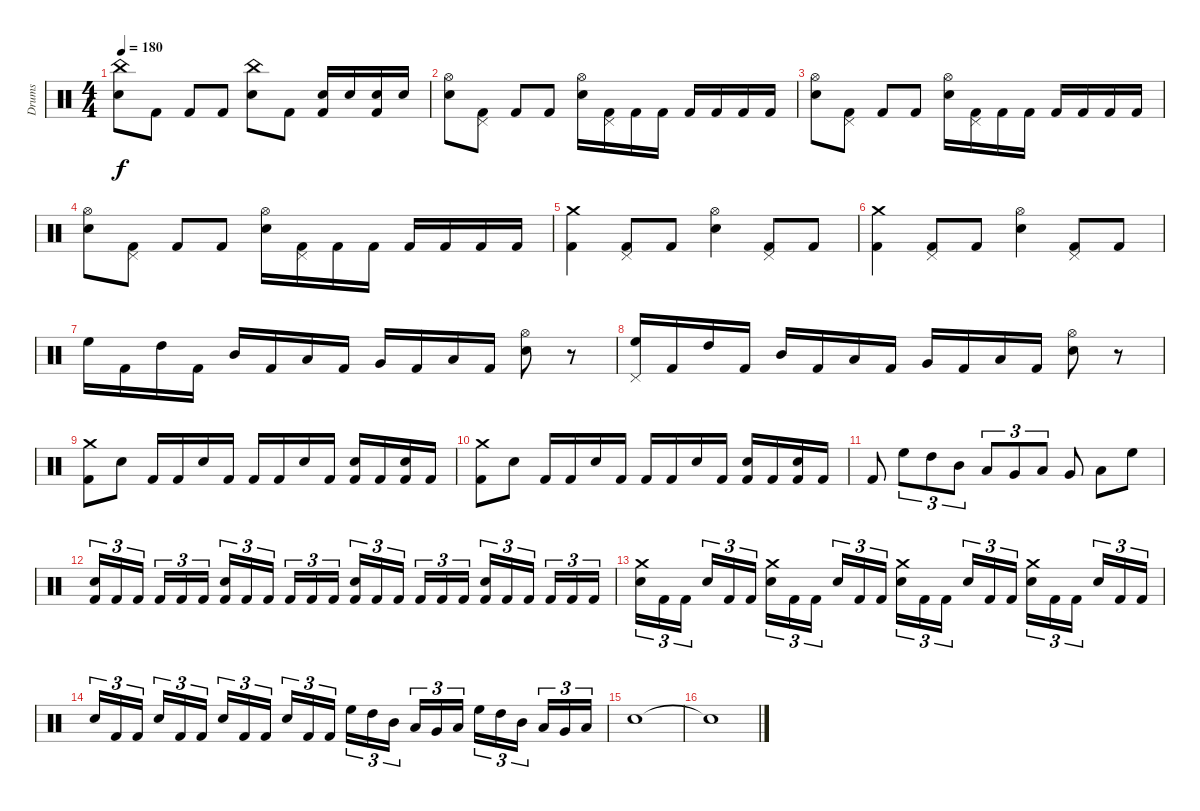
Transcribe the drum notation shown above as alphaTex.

\track ("Drums" "Drums") {instrument percussion}
\staff {score}
\articulation defaults
\ts (4 4)
\tempo 180
\clef neutral
\ks c
("China (hit)" "Electric Snare (hit)").8{dy f} "Kick (hit) 2".8 "Kick (hit) 2".8 "Kick (hit) 2".8 ("China (hit)" "Electric Snare (hit)").8 "Kick (hit) 2".8 ("Kick (hit) 2" "Electric Snare (hit)").16 "Electric Snare (hit)".16 ("Kick (hit) 2" "Electric Snare (hit)").16 "Electric Snare (hit)".16 |
("Hi-Hat (open)" "Electric Snare (hit)").8 ("Pedal Hi-Hat (hit)" "Kick (hit) 2").8 "Kick (hit) 2".8 "Kick (hit) 2".8 ("Hi-Hat (open)" "Electric Snare (hit)").16 ("Pedal Hi-Hat (hit)" "Kick (hit) 2").16 "Kick (hit) 2".16 "Kick (hit) 2".16 "Kick (hit) 2".16 "Kick (hit) 2".16 "Kick (hit) 2".16 "Kick (hit) 2".16 |
("Hi-Hat (open)" "Electric Snare (hit)").8 ("Pedal Hi-Hat (hit)" "Kick (hit) 2").8 "Kick (hit) 2".8 "Kick (hit) 2".8 ("Hi-Hat (open)" "Electric Snare (hit)").16 ("Pedal Hi-Hat (hit)" "Kick (hit) 2").16 "Kick (hit) 2".16 "Kick (hit) 2".16 "Kick (hit) 2".16 "Kick (hit) 2".16 "Kick (hit) 2".16 "Kick (hit) 2".16 |
("Hi-Hat (open)" "Electric Snare (hit)").8 ("Pedal Hi-Hat (hit)" "Kick (hit) 2").8 "Kick (hit) 2".8 "Kick (hit) 2".8 ("Hi-Hat (open)" "Electric Snare (hit)").16 ("Pedal Hi-Hat (hit)" "Kick (hit) 2").16 "Kick (hit) 2".16 "Kick (hit) 2".16 "Kick (hit) 2".16 "Kick (hit) 2".16 "Kick (hit) 2".16 "Kick (hit) 2".16 |
("Kick (hit) 2" "Crash medium (hit)").4 ("Kick (hit) 2" "Pedal Hi-Hat (hit)").8 "Kick (hit) 2".8 ("Electric Snare (hit)" "Hi-Hat (open)").4 ("Kick (hit) 2" "Pedal Hi-Hat (hit)").8 "Kick (hit) 2".8 |
("Kick (hit) 2" "Crash medium (hit)").4 ("Kick (hit) 2" "Pedal Hi-Hat (hit)").8 "Kick (hit) 2".8 ("Electric Snare (hit)" "Hi-Hat (open)").4 ("Kick (hit) 2" "Pedal Hi-Hat (hit)").8 "Kick (hit) 2".8 |
"High Floor Tom (hit)".16 "Kick (hit) 2".16 "High Tom (hit)".16 "Kick (hit) 2".16 "Mid Tom (hit)".16 "Kick (hit) 2".16 "Low Tom (hit)".16 "Kick (hit) 2".16 "Very Low Tom (hit)".16 "Kick (hit) 2".16 "Low Floor Tom (hit)".16 "Kick (hit) 2".16 ("Electric Snare (hit)" "Hi-Hat (open)").8 r.8 |
("High Floor Tom (hit)" "Pedal Hi-Hat (hit)").16 "Kick (hit) 2".16 "High Tom (hit)".16 "Kick (hit) 2".16 "Mid Tom (hit)".16 "Kick (hit) 2".16 "Low Tom (hit)".16 "Kick (hit) 2".16 "Very Low Tom (hit)".16 "Kick (hit) 2".16 "Low Floor Tom (hit)".16 "Kick (hit) 2".16 ("Electric Snare (hit)" "Hi-Hat (open)").8 r.8 |
("Kick (hit) 2" "Crash medium (hit)").8 "Electric Snare (hit)".8 "Kick (hit) 2".16 "Kick (hit) 2".16 "Electric Snare (hit)".16 "Kick (hit) 2".16 "Kick (hit) 2".16 "Kick (hit) 2".16 "Electric Snare (hit)".16 "Kick (hit) 2".16 ("Kick (hit) 2" "Electric Snare (hit)").16 "Kick (hit) 2".16 ("Kick (hit) 2" "Electric Snare (hit)").16 "Kick (hit) 2".16 |
("Kick (hit) 2" "Crash medium (hit)").8 "Electric Snare (hit)".8 "Kick (hit) 2".16 "Kick (hit) 2".16 "Electric Snare (hit)".16 "Kick (hit) 2".16 "Kick (hit) 2".16 "Kick (hit) 2".16 "Electric Snare (hit)".16 "Kick (hit) 2".16 ("Kick (hit) 2" "Electric Snare (hit)").16 "Kick (hit) 2".16 ("Kick (hit) 2" "Electric Snare (hit)").16 "Kick (hit) 2".16 |
"Kick (hit) 2".8 "High Floor Tom (hit)".8{tu (3 2)} "High Tom (hit)".8{tu (3 2)} "Mid Tom (hit)".8{tu (3 2)} "Low Tom (hit)".8{tu (3 2)} "Very Low Tom (hit)".8{tu (3 2)} "Low Floor Tom (hit)".8{tu (3 2)} "Very Low Tom (hit)".8 "Low Tom (hit)".8 "High Floor Tom (hit)".8 |
("Kick (hit) 2" "Electric Snare (hit)").16{tu (3 2)} "Kick (hit) 2".16{tu (3 2)} "Kick (hit) 2".16{tu (3 2)} "Kick (hit) 2".16{tu (3 2)} "Kick (hit) 2".16{tu (3 2)} "Kick (hit) 2".16{tu (3 2)} ("Kick (hit) 2" "Electric Snare (hit)").16{tu (3 2)} "Kick (hit) 2".16{tu (3 2)} "Kick (hit) 2".16{tu (3 2)} "Kick (hit) 2".16{tu (3 2)} "Kick (hit) 2".16{tu (3 2)} "Kick (hit) 2".16{tu (3 2)} ("Kick (hit) 2" "Electric Snare (hit)").16{tu (3 2)} "Kick (hit) 2".16{tu (3 2)} "Kick (hit) 2".16{tu (3 2)} "Kick (hit) 2".16{tu (3 2)} "Kick (hit) 2".16{tu (3 2)} "Kick (hit) 2".16{tu (3 2)} ("Kick (hit) 2" "Electric Snare (hit)").16{tu (3 2)} "Kick (hit) 2".16{tu (3 2)} "Kick (hit) 2".16{tu (3 2)} "Kick (hit) 2".16{tu (3 2)} "Kick (hit) 2".16{tu (3 2)} "Kick (hit) 2".16{tu (3 2)} |
("Crash medium (hit)" "Electric Snare (hit)").16{tu (3 2)} "Kick (hit) 2".16{tu (3 2)} "Kick (hit) 2".16{tu (3 2)} "Electric Snare (hit)".16{tu (3 2)} "Kick (hit) 2".16{tu (3 2)} "Kick (hit) 2".16{tu (3 2)} ("Crash medium (hit)" "Electric Snare (hit)").16{tu (3 2)} "Kick (hit) 2".16{tu (3 2)} "Kick (hit) 2".16{tu (3 2)} "Electric Snare (hit)".16{tu (3 2)} "Kick (hit) 2".16{tu (3 2)} "Kick (hit) 2".16{tu (3 2)} ("Crash medium (hit)" "Electric Snare (hit)").16{tu (3 2)} "Kick (hit) 2".16{tu (3 2)} "Kick (hit) 2".16{tu (3 2)} "Electric Snare (hit)".16{tu (3 2)} "Kick (hit) 2".16{tu (3 2)} "Kick (hit) 2".16{tu (3 2)} ("Crash medium (hit)" "Electric Snare (hit)").16{tu (3 2)} "Kick (hit) 2".16{tu (3 2)} "Kick (hit) 2".16{tu (3 2)} "Electric Snare (hit)".16{tu (3 2)} "Kick (hit) 2".16{tu (3 2)} "Kick (hit) 2".16{tu (3 2)} |
"Electric Snare (hit)".16{tu (3 2)} "Kick (hit) 2".16{tu (3 2)} "Kick (hit) 2".16{tu (3 2)} "Electric Snare (hit)".16{tu (3 2)} "Kick (hit) 2".16{tu (3 2)} "Kick (hit) 2".16{tu (3 2)} "Electric Snare (hit)".16{tu (3 2)} "Kick (hit) 2".16{tu (3 2)} "Kick (hit) 2".16{tu (3 2)} "Electric Snare (hit)".16{tu (3 2)} "Kick (hit) 2".16{tu (3 2)} "Kick (hit) 2".16{tu (3 2)} "High Floor Tom (hit)".16{tu (3 2)} "High Tom (hit)".16{tu (3 2)} "Mid Tom (hit)".16{tu (3 2)} "Low Tom (hit)".16{tu (3 2)} "Very Low Tom (hit)".16{tu (3 2)} "Low Floor Tom (hit)".16{tu (3 2)} "High Floor Tom (hit)".16{tu (3 2)} "High Tom (hit)".16{tu (3 2)} "Mid Tom (hit)".16{tu (3 2)} "Low Tom (hit)".16{tu (3 2)} "Very Low Tom (hit)".16{tu (3 2)} "Low Floor Tom (hit)".16{tu (3 2)} |
"Electric Snare (hit)".1 |
"Snare (hit)"{t}.1
